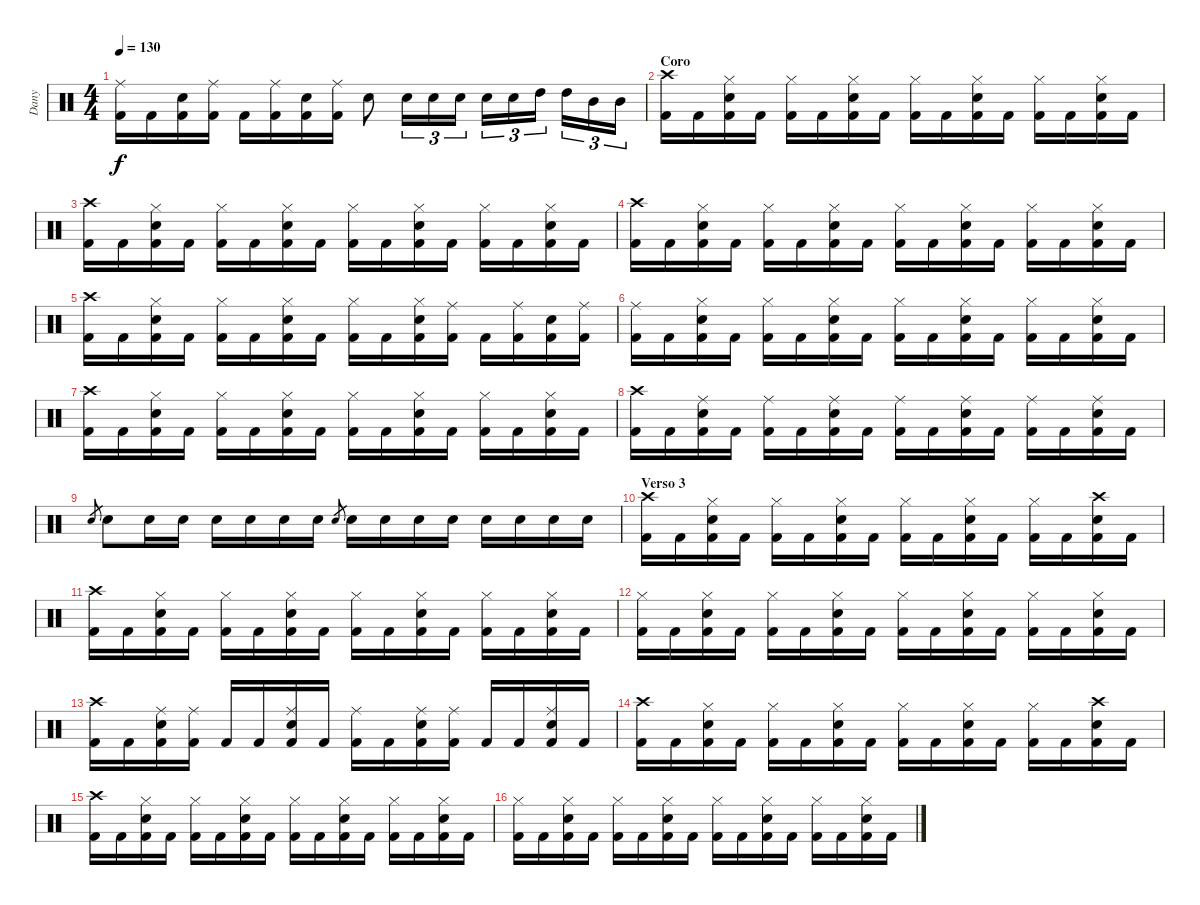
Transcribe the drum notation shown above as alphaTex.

\track ("Dany" "Dany") {instrument percussion}
\staff {score}
\articulation defaults
\ts (4 4)
\tempo 130
\clef neutral
\ks c
("Kick (hit) 2" "Ride (middle)").16{dy f} "Kick (hit) 2".16 ("Kick (hit) 2" "Electric Snare (hit)").16 ("Kick (hit) 2" "Ride (middle)").16 "Kick (hit) 2".16 ("Kick (hit) 2" "Ride (middle)").16 ("Kick (hit) 2" "Electric Snare (hit)").16 ("Kick (hit) 2" "Ride (middle)").16 "Electric Snare (hit)".8 "Electric Snare (hit)".16{tu (3 2)} "Electric Snare (hit)".16{tu (3 2)} "Electric Snare (hit)".16{tu (3 2)} "Electric Snare (hit)".16{tu (3 2)} "Electric Snare (hit)".16{tu (3 2)} "High Tom (hit)".16{tu (3 2)} "High Tom (hit)".16{tu (3 2)} "Mid Tom (hit)".16{tu (3 2)} "Mid Tom (hit)".16{tu (3 2)} |
\section ("" "Coro")
("Kick (hit) 2" "Crash high (hit)").16 "Kick (hit) 2".16 ("Kick (hit) 2" "Electric Snare (hit)" "Hi-Hat (closed)").16 "Kick (hit) 2".16 ("Kick (hit) 2" "Hi-Hat (closed)").16 "Kick (hit) 2".16 ("Kick (hit) 2" "Electric Snare (hit)" "Hi-Hat (closed)").16 "Kick (hit) 2".16 ("Kick (hit) 2" "Hi-Hat (closed)").16 "Kick (hit) 2".16 ("Kick (hit) 2" "Electric Snare (hit)" "Hi-Hat (closed)").16 "Kick (hit) 2".16 ("Kick (hit) 2" "Hi-Hat (closed)").16 "Kick (hit) 2".16 ("Kick (hit) 2" "Electric Snare (hit)" "Hi-Hat (closed)").16 "Kick (hit) 2".16 |
("Kick (hit) 2" "Crash high (hit)").16 "Kick (hit) 2".16 ("Kick (hit) 2" "Electric Snare (hit)" "Hi-Hat (closed)").16 "Kick (hit) 2".16 ("Kick (hit) 2" "Hi-Hat (closed)").16 "Kick (hit) 2".16 ("Kick (hit) 2" "Electric Snare (hit)" "Hi-Hat (closed)").16 "Kick (hit) 2".16 ("Kick (hit) 2" "Hi-Hat (closed)").16 "Kick (hit) 2".16 ("Kick (hit) 2" "Electric Snare (hit)" "Hi-Hat (closed)").16 "Kick (hit) 2".16 ("Kick (hit) 2" "Hi-Hat (closed)").16 "Kick (hit) 2".16 ("Kick (hit) 2" "Electric Snare (hit)" "Hi-Hat (closed)").16 "Kick (hit) 2".16 |
("Kick (hit) 2" "Crash high (hit)").16 "Kick (hit) 2".16 ("Kick (hit) 2" "Electric Snare (hit)" "Hi-Hat (closed)").16 "Kick (hit) 2".16 ("Kick (hit) 2" "Hi-Hat (closed)").16 "Kick (hit) 2".16 ("Kick (hit) 2" "Electric Snare (hit)" "Hi-Hat (closed)").16 "Kick (hit) 2".16 ("Kick (hit) 2" "Hi-Hat (closed)").16 "Kick (hit) 2".16 ("Kick (hit) 2" "Electric Snare (hit)" "Hi-Hat (closed)").16 "Kick (hit) 2".16 ("Kick (hit) 2" "Hi-Hat (closed)").16 "Kick (hit) 2".16 ("Kick (hit) 2" "Electric Snare (hit)" "Hi-Hat (closed)").16 "Kick (hit) 2".16 |
("Kick (hit) 2" "Crash high (hit)").16 "Kick (hit) 2".16 ("Kick (hit) 2" "Electric Snare (hit)" "Hi-Hat (closed)").16 "Kick (hit) 2".16 ("Kick (hit) 2" "Hi-Hat (closed)").16 "Kick (hit) 2".16 ("Kick (hit) 2" "Electric Snare (hit)" "Hi-Hat (closed)").16 "Kick (hit) 2".16 ("Kick (hit) 2" "Hi-Hat (closed)").16 "Kick (hit) 2".16 ("Kick (hit) 2" "Electric Snare (hit)" "Hi-Hat (closed)").16 ("Kick (hit) 2" "Ride (middle)").16 "Kick (hit) 2".16 ("Kick (hit) 2" "Ride (middle)").16 ("Kick (hit) 2" "Electric Snare (hit)").16 ("Kick (hit) 2" "Ride (middle)").16 |
("Kick (hit) 2" "Ride (middle)").16 "Kick (hit) 2".16 ("Kick (hit) 2" "Electric Snare (hit)" "Hi-Hat (closed)").16 "Kick (hit) 2".16 ("Kick (hit) 2" "Hi-Hat (closed)").16 "Kick (hit) 2".16 ("Kick (hit) 2" "Electric Snare (hit)" "Hi-Hat (closed)").16 "Kick (hit) 2".16 ("Kick (hit) 2" "Hi-Hat (closed)").16 "Kick (hit) 2".16 ("Kick (hit) 2" "Electric Snare (hit)" "Hi-Hat (closed)").16 "Kick (hit) 2".16 ("Kick (hit) 2" "Hi-Hat (closed)").16 "Kick (hit) 2".16 ("Kick (hit) 2" "Electric Snare (hit)" "Hi-Hat (closed)").16 "Kick (hit) 2".16 |
("Kick (hit) 2" "Crash high (hit)").16 "Kick (hit) 2".16 ("Kick (hit) 2" "Electric Snare (hit)" "Hi-Hat (closed)").16 "Kick (hit) 2".16 ("Kick (hit) 2" "Hi-Hat (closed)").16 "Kick (hit) 2".16 ("Kick (hit) 2" "Electric Snare (hit)" "Hi-Hat (closed)").16 "Kick (hit) 2".16 ("Kick (hit) 2" "Hi-Hat (closed)").16 "Kick (hit) 2".16 ("Kick (hit) 2" "Electric Snare (hit)" "Hi-Hat (closed)").16 "Kick (hit) 2".16 ("Kick (hit) 2" "Hi-Hat (closed)").16 "Kick (hit) 2".16 ("Kick (hit) 2" "Electric Snare (hit)" "Hi-Hat (closed)").16 "Kick (hit) 2".16 |
("Kick (hit) 2" "Crash high (hit)").16 "Kick (hit) 2".16 ("Kick (hit) 2" "Electric Snare (hit)" "Ride (middle)").16 "Kick (hit) 2".16 ("Kick (hit) 2" "Ride (middle)").16 "Kick (hit) 2".16 ("Kick (hit) 2" "Electric Snare (hit)" "Ride (middle)").16 "Kick (hit) 2".16 ("Kick (hit) 2" "Ride (middle)").16 "Kick (hit) 2".16 ("Kick (hit) 2" "Electric Snare (hit)" "Ride (middle)").16 "Kick (hit) 2".16 ("Kick (hit) 2" "Ride (middle)").16 "Kick (hit) 2".16 ("Kick (hit) 2" "Electric Snare (hit)" "Ride (middle)").16 "Kick (hit) 2".16 |
"Electric Snare (hit)".8{gr} "Electric Snare (hit)".8 "Electric Snare (hit)".16 "Electric Snare (hit)".16 "Electric Snare (hit)".16 "Electric Snare (hit)".16 "Electric Snare (hit)".16 "Electric Snare (hit)".16 "Electric Snare (hit)".8{gr} "Electric Snare (hit)".16 "Electric Snare (hit)".16 "Electric Snare (hit)".16 "Electric Snare (hit)".16 "Electric Snare (hit)".16 "Electric Snare (hit)".16 "Electric Snare (hit)".16 "Electric Snare (hit)".16 |
\section ("" "Verso 3")
("Kick (hit) 2" "Crash high (hit)").16 "Kick (hit) 2".16 ("Kick (hit) 2" "Electric Snare (hit)" "Hi-Hat (closed)").16 "Kick (hit) 2".16 ("Kick (hit) 2" "Hi-Hat (closed)").16 "Kick (hit) 2".16 ("Kick (hit) 2" "Electric Snare (hit)" "Hi-Hat (closed)").16 "Kick (hit) 2".16 ("Kick (hit) 2" "Hi-Hat (closed)").16 "Kick (hit) 2".16 ("Kick (hit) 2" "Electric Snare (hit)" "Hi-Hat (closed)").16 "Kick (hit) 2".16 ("Kick (hit) 2" "Hi-Hat (closed)").16 "Kick (hit) 2".16 ("Kick (hit) 2" "Electric Snare (hit)" "Crash high (hit)").16 "Kick (hit) 2".16 |
("Kick (hit) 2" "Crash high (hit)").16 "Kick (hit) 2".16 ("Kick (hit) 2" "Electric Snare (hit)" "Hi-Hat (closed)").16 "Kick (hit) 2".16 ("Kick (hit) 2" "Hi-Hat (closed)").16 "Kick (hit) 2".16 ("Kick (hit) 2" "Electric Snare (hit)" "Hi-Hat (closed)").16 "Kick (hit) 2".16 ("Kick (hit) 2" "Hi-Hat (closed)").16 "Kick (hit) 2".16 ("Kick (hit) 2" "Electric Snare (hit)" "Hi-Hat (closed)").16 "Kick (hit) 2".16 ("Kick (hit) 2" "Hi-Hat (closed)").16 "Kick (hit) 2".16 ("Kick (hit) 2" "Electric Snare (hit)" "Hi-Hat (closed)").16 "Kick (hit) 2".16 |
("Kick (hit) 2" "Hi-Hat (closed)").16 "Kick (hit) 2".16 ("Kick (hit) 2" "Electric Snare (hit)" "Hi-Hat (closed)").16 "Kick (hit) 2".16 ("Kick (hit) 2" "Hi-Hat (closed)").16 "Kick (hit) 2".16 ("Kick (hit) 2" "Electric Snare (hit)" "Hi-Hat (closed)").16 "Kick (hit) 2".16 ("Kick (hit) 2" "Hi-Hat (closed)").16 "Kick (hit) 2".16 ("Kick (hit) 2" "Electric Snare (hit)" "Hi-Hat (closed)").16 "Kick (hit) 2".16 ("Kick (hit) 2" "Hi-Hat (closed)").16 "Kick (hit) 2".16 ("Kick (hit) 2" "Electric Snare (hit)" "Hi-Hat (closed)").16 "Kick (hit) 2".16 |
("Kick (hit) 2" "Crash high (hit)").16 "Kick (hit) 2".16 ("Kick (hit) 2" "Electric Snare (hit)" "Ride (middle)").16 ("Kick (hit) 2" "Ride (middle)").16 "Kick (hit) 2".16 "Kick (hit) 2".16 ("Kick (hit) 2" "Electric Snare (hit)" "Ride (middle)").16 "Kick (hit) 2".16 ("Kick (hit) 2" "Ride (middle)").16 "Kick (hit) 2".16 ("Kick (hit) 2" "Electric Snare (hit)" "Ride (middle)").16 ("Kick (hit) 2" "Ride (middle)").16 "Kick (hit) 2".16 "Kick (hit) 2".16 ("Kick (hit) 2" "Electric Snare (hit)" "Ride (middle)").16 "Kick (hit) 2".16 |
("Kick (hit) 2" "Crash high (hit)").16 "Kick (hit) 2".16 ("Kick (hit) 2" "Electric Snare (hit)" "Hi-Hat (closed)").16 "Kick (hit) 2".16 ("Kick (hit) 2" "Hi-Hat (closed)").16 "Kick (hit) 2".16 ("Kick (hit) 2" "Electric Snare (hit)" "Hi-Hat (closed)").16 "Kick (hit) 2".16 ("Kick (hit) 2" "Hi-Hat (closed)").16 "Kick (hit) 2".16 ("Kick (hit) 2" "Electric Snare (hit)" "Hi-Hat (closed)").16 "Kick (hit) 2".16 ("Kick (hit) 2" "Hi-Hat (closed)").16 "Kick (hit) 2".16 ("Kick (hit) 2" "Electric Snare (hit)" "Crash high (hit)").16 "Kick (hit) 2".16 |
("Kick (hit) 2" "Crash high (hit)").16 "Kick (hit) 2".16 ("Kick (hit) 2" "Electric Snare (hit)" "Hi-Hat (closed)").16 "Kick (hit) 2".16 ("Kick (hit) 2" "Hi-Hat (closed)").16 "Kick (hit) 2".16 ("Kick (hit) 2" "Electric Snare (hit)" "Hi-Hat (closed)").16 "Kick (hit) 2".16 ("Kick (hit) 2" "Hi-Hat (closed)").16 "Kick (hit) 2".16 ("Kick (hit) 2" "Electric Snare (hit)" "Hi-Hat (closed)").16 "Kick (hit) 2".16 ("Kick (hit) 2" "Hi-Hat (closed)").16 "Kick (hit) 2".16 ("Kick (hit) 2" "Electric Snare (hit)" "Hi-Hat (closed)").16 "Kick (hit) 2".16 |
("Kick (hit) 2" "Hi-Hat (closed)").16 "Kick (hit) 2".16 ("Kick (hit) 2" "Electric Snare (hit)" "Hi-Hat (closed)").16 "Kick (hit) 2".16 ("Kick (hit) 2" "Hi-Hat (closed)").16 "Kick (hit) 2".16 ("Kick (hit) 2" "Electric Snare (hit)" "Hi-Hat (closed)").16 "Kick (hit) 2".16 ("Kick (hit) 2" "Hi-Hat (closed)").16 "Kick (hit) 2".16 ("Kick (hit) 2" "Electric Snare (hit)" "Hi-Hat (closed)").16 "Kick (hit) 2".16 ("Kick (hit) 2" "Hi-Hat (closed)").16 "Kick (hit) 2".16 ("Kick (hit) 2" "Electric Snare (hit)" "Hi-Hat (closed)").16 "Kick (hit) 2".16
